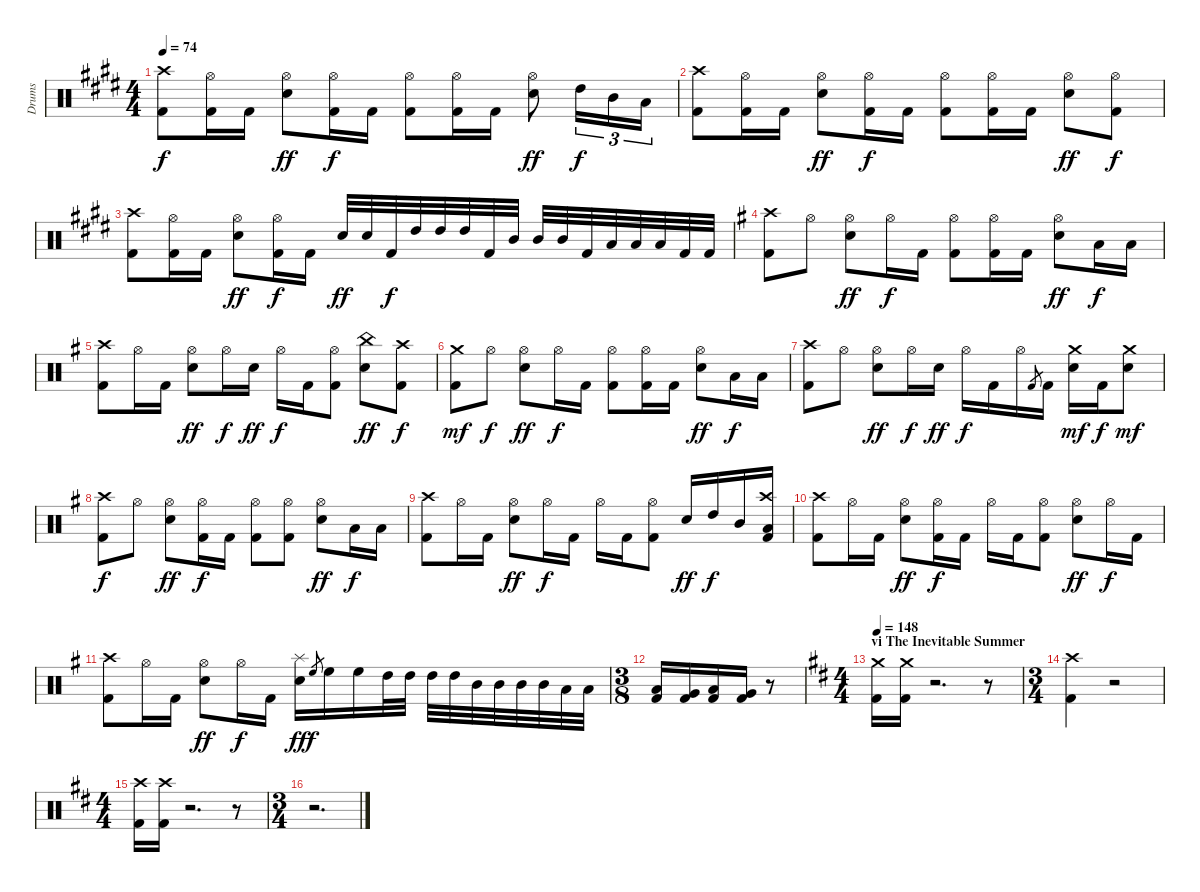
\track ("Drums" "Drums") {instrument percussion}
\staff {score}
\articulation defaults
\ts (4 4)
\tempo 74
\clef neutral
\ks e
("Kick (hit) 2" "Crash high (hit)").8{dy f} ("Kick (hit) 2" "Hi-Hat (open)").16 "Kick (hit) 2".16 ("Electric Snare (hit)" "Hi-Hat (open)").8{dy ff} ("Kick (hit) 2" "Hi-Hat (open)").16{dy f} "Kick (hit) 2".16 ("Kick (hit) 2" "Hi-Hat (open)").8 ("Kick (hit) 2" "Hi-Hat (open)").16 "Kick (hit) 2".16 ("Electric Snare (hit)" "Hi-Hat (open)").8{dy ff} "High Tom (hit)".16{tu (3 2) dy f} "Mid Tom (hit)".16{tu (3 2)} "Low Tom (hit)".16{tu (3 2)} |
("Kick (hit) 2" "Crash high (hit)").8 ("Kick (hit) 2" "Hi-Hat (open)").16 "Kick (hit) 2".16 ("Electric Snare (hit)" "Hi-Hat (open)").8{dy ff} ("Kick (hit) 2" "Hi-Hat (open)").16{dy f} "Kick (hit) 2".16 ("Kick (hit) 2" "Hi-Hat (open)").8 ("Kick (hit) 2" "Hi-Hat (open)").16 "Kick (hit) 2".16 ("Electric Snare (hit)" "Hi-Hat (open)").8{dy ff} ("Kick (hit) 2" "Hi-Hat (open)").8{dy f} |
("Kick (hit) 2" "Crash high (hit)").8 ("Kick (hit) 2" "Hi-Hat (open)").16 "Kick (hit) 2".16 ("Electric Snare (hit)" "Hi-Hat (open)").8{dy ff} ("Kick (hit) 2" "Hi-Hat (open)").16{dy f} "Kick (hit) 2".16 "Electric Snare (hit)".32{dy ff} "Electric Snare (hit)".32 "Kick (hit) 2".32{dy f} "High Tom (hit)".32 "High Tom (hit)".32 "High Tom (hit)".32 "Kick (hit) 2".32 "Mid Tom (hit)".32 "Mid Tom (hit)".32 "Mid Tom (hit)".32 "Kick (hit) 2".32 "Low Tom (hit)".32 "Low Tom (hit)".32 "Low Tom (hit)".32 "Kick (hit) 2".32 "Kick (hit) 2".32 |
\ks g
("Kick (hit) 2" "Crash high (hit)").8 "Hi-Hat (open)".8 ("Electric Snare (hit)" "Hi-Hat (open)").8{dy ff} "Hi-Hat (open)".16{dy f} "Kick (hit) 2".16 ("Kick (hit) 2" "Hi-Hat (open)").8 ("Kick (hit) 2" "Hi-Hat (open)").16 "Kick (hit) 2".16 ("Electric Snare (hit)" "Hi-Hat (open)").8{dy ff} "Low Floor Tom (hit)".16{dy f} "Low Floor Tom (hit)".16 |
("Kick (hit) 2" "Crash high (hit)").8 "Hi-Hat (open)".16 "Kick (hit) 2".16 ("Electric Snare (hit)" "Hi-Hat (open)").8{dy ff} "Hi-Hat (open)".16{dy f} "Electric Snare (hit)".16{dy ff} "Hi-Hat (open)".16{dy f} "Kick (hit) 2".16 ("Kick (hit) 2" "Hi-Hat (open)").8 ("Electric Snare (hit)" "China (hit)").8{dy ff} ("Kick (hit) 2" "Crash high (hit)").8{dy f} |
("Kick (hit) 2" "Crash medium (hit)").8{dy mf} "Hi-Hat (open)".8{dy f} ("Electric Snare (hit)" "Hi-Hat (open)").8{dy ff} "Hi-Hat (open)".16{dy f} "Kick (hit) 2".16 ("Kick (hit) 2" "Hi-Hat (open)").8 ("Kick (hit) 2" "Hi-Hat (open)").16 "Kick (hit) 2".16 ("Electric Snare (hit)" "Hi-Hat (open)").8{dy ff} "Low Floor Tom (hit)".16{dy f} "Low Floor Tom (hit)".16 |
("Kick (hit) 2" "Crash high (hit)").8 "Hi-Hat (open)".8 ("Electric Snare (hit)" "Hi-Hat (open)").8{dy ff} "Hi-Hat (open)".16{dy f} "Electric Snare (hit)".16{dy ff} "Hi-Hat (open)".16{dy f} "Kick (hit) 2".16 "Hi-Hat (open)".16 "Kick (hit) 2".8{gr} "Kick (hit) 2".16 ("Electric Snare (hit)" "Crash medium (hit)").16{dy mf} "Kick (hit) 2".16{dy f} ("Electric Snare (hit)" "Crash medium (hit)").8{dy mf} |
("Kick (hit) 2" "Crash high (hit)").8{dy f} "Hi-Hat (open)".8 ("Electric Snare (hit)" "Hi-Hat (open)").8{dy ff} ("Kick (hit) 2" "Hi-Hat (open)").16{dy f} "Kick (hit) 2".16 ("Kick (hit) 2" "Hi-Hat (open)").8 ("Kick (hit) 2" "Hi-Hat (open)").8 ("Electric Snare (hit)" "Hi-Hat (open)").8{dy ff} "Low Floor Tom (hit)".16{dy f} "Low Floor Tom (hit)".16 |
("Kick (hit) 2" "Crash high (hit)").8 "Hi-Hat (open)".16 "Kick (hit) 2".16 ("Electric Snare (hit)" "Hi-Hat (open)").8{dy ff} "Hi-Hat (open)".16{dy f} "Kick (hit) 2".16 "Hi-Hat (open)".16 "Kick (hit) 2".16 ("Kick (hit) 2" "Hi-Hat (open)").8 "Electric Snare (hit)".16{dy ff} "High Tom (hit)".16{dy f} "Mid Tom (hit)".16 ("Kick (hit) 2" "Low Tom (hit)" "Crash high (hit)").16 |
("Kick (hit) 2" "Crash high (hit)").8 "Hi-Hat (open)".16 "Kick (hit) 2".16 ("Electric Snare (hit)" "Hi-Hat (open)").8{dy ff} ("Kick (hit) 2" "Hi-Hat (open)").16{dy f} "Kick (hit) 2".16 "Hi-Hat (open)".16 "Kick (hit) 2".16 ("Kick (hit) 2" "Hi-Hat (open)").8 ("Electric Snare (hit)" "Hi-Hat (open)").8{dy ff} "Hi-Hat (open)".16{dy f} "Kick (hit) 2".16 |
("Kick (hit) 2" "Crash high (hit)").8 "Hi-Hat (open)".16 "Kick (hit) 2".16 ("Electric Snare (hit)" "Hi-Hat (open)").8{dy ff} "Hi-Hat (open)".16{dy f} "Kick (hit) 2".16 ("Electric Snare (hit)" "Splash (hit)").16{dy ff} "High Floor Tom (hit)".8{gr dy f} "High Floor Tom (hit)".16 "High Floor Tom (hit)".16 "High Tom (hit)".32 "High Tom (hit)".32 "High Tom (hit)".32 "High Tom (hit)".32 "Mid Tom (hit)".32 "Mid Tom (hit)".32 "Mid Tom (hit)".32 "Mid Tom (hit)".32 "Low Tom (hit)".32 "Low Tom (hit)".32 |
\ts (3 8)
("Kick (hit) 2" "Low Floor Tom (hit)").16 ("Kick (hit) 2" "Very Low Tom (hit)").16 ("Kick (hit) 2" "Low Floor Tom (hit)").16 ("Kick (hit) 2" "Very Low Tom (hit)").16 r.8 |
\ts (4 4)
\section ("" "vi The Inevitable Summer")
\tempo 148
\ks d
("Kick (hit) 2" "Crash medium (hit)").16 ("Kick (hit) 2" "Crash medium (hit)").16 r.2{d} r.8 |
\ts (3 4)
("Kick (hit) 2" "Crash high (hit)").4{volume 12} r.2 |
\ts (4 4)
("Kick (hit) 2" "Crash high (hit)").16 ("Kick (hit) 2" "Crash high (hit)").16 r.2{d} r.8 |
\ts (3 4)
r.2{d}
